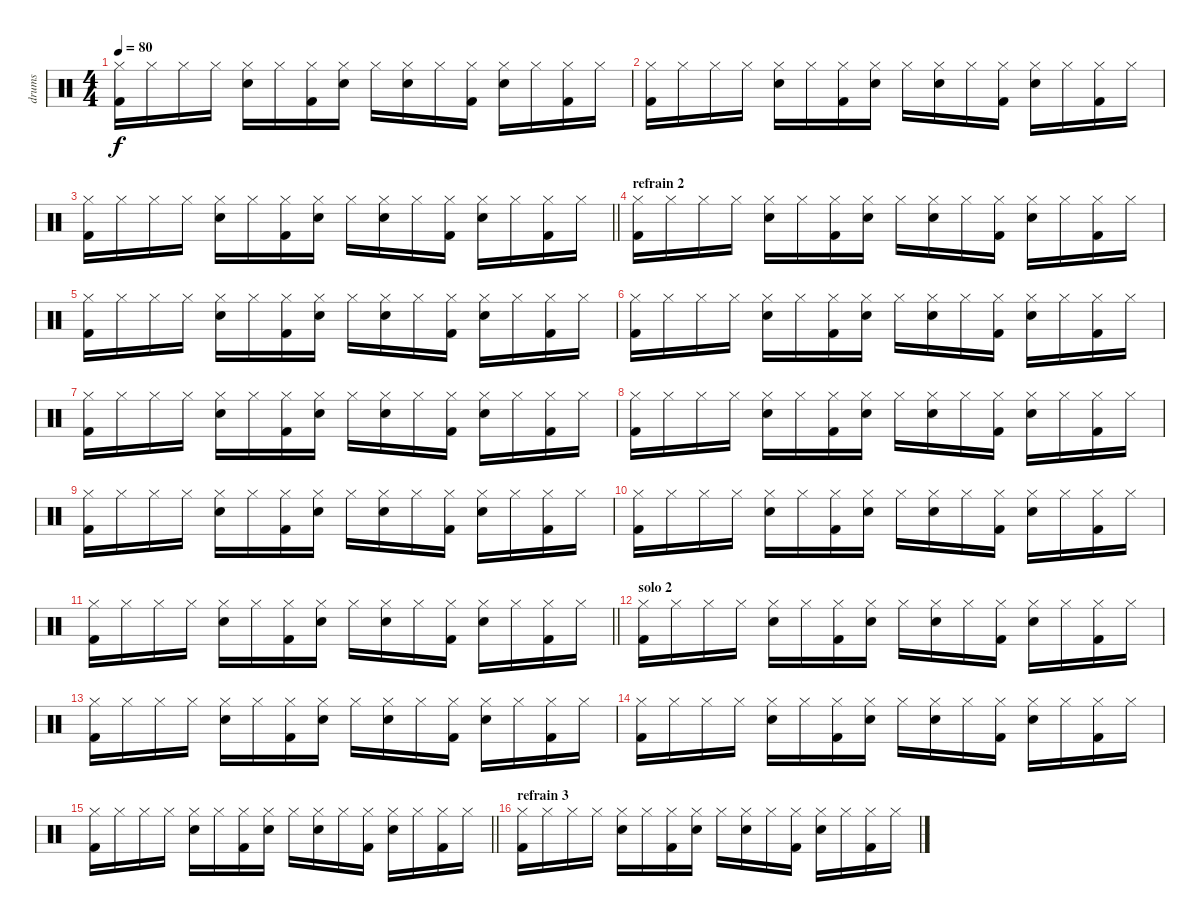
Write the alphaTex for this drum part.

\track ("drums" "drums") {instrument percussion}
\staff {score}
\articulation defaults
\ts (4 4)
\tempo 80
\clef neutral
\ks c
("Hi-Hat (closed)" "Kick (hit) 2").16{dy f} "Hi-Hat (closed)".16 "Hi-Hat (closed)".16 "Hi-Hat (closed)".16 ("Hi-Hat (closed)" "Snare (hit) 2").16 "Hi-Hat (closed)".16 ("Hi-Hat (closed)" "Kick (hit) 2").16 ("Hi-Hat (closed)" "Snare (hit) 2").16 "Hi-Hat (closed)".16 ("Hi-Hat (closed)" "Snare (hit) 2").16 "Hi-Hat (closed)".16 ("Hi-Hat (closed)" "Kick (hit) 2").16 ("Hi-Hat (closed)" "Snare (hit) 2").16 "Hi-Hat (closed)".16 ("Hi-Hat (closed)" "Kick (hit) 2").16 "Hi-Hat (closed)".16 |
("Hi-Hat (closed)" "Kick (hit) 2").16 "Hi-Hat (closed)".16 "Hi-Hat (closed)".16 "Hi-Hat (closed)".16 ("Hi-Hat (closed)" "Snare (hit) 2").16 "Hi-Hat (closed)".16 ("Hi-Hat (closed)" "Kick (hit) 2").16 ("Hi-Hat (closed)" "Snare (hit) 2").16 "Hi-Hat (closed)".16 ("Hi-Hat (closed)" "Snare (hit) 2").16 "Hi-Hat (closed)".16 ("Hi-Hat (closed)" "Kick (hit) 2").16 ("Hi-Hat (closed)" "Snare (hit) 2").16 "Hi-Hat (closed)".16 ("Hi-Hat (closed)" "Kick (hit) 2").16 "Hi-Hat (closed)".16 |
\barLineRight lightlight
("Hi-Hat (closed)" "Kick (hit) 2").16 "Hi-Hat (closed)".16 "Hi-Hat (closed)".16 "Hi-Hat (closed)".16 ("Hi-Hat (closed)" "Snare (hit) 2").16 "Hi-Hat (closed)".16 ("Hi-Hat (closed)" "Kick (hit) 2").16 ("Hi-Hat (closed)" "Snare (hit) 2").16 "Hi-Hat (closed)".16 ("Hi-Hat (closed)" "Snare (hit) 2").16 "Hi-Hat (closed)".16 ("Hi-Hat (closed)" "Kick (hit) 2").16 ("Hi-Hat (closed)" "Snare (hit) 2").16 "Hi-Hat (closed)".16 ("Hi-Hat (closed)" "Kick (hit) 2").16 "Hi-Hat (closed)".16 |
\section ("" "refrain 2")
("Hi-Hat (closed)" "Kick (hit) 2").16 "Hi-Hat (closed)".16 "Hi-Hat (closed)".16 "Hi-Hat (closed)".16 ("Hi-Hat (closed)" "Snare (hit) 2").16 "Hi-Hat (closed)".16 ("Hi-Hat (closed)" "Kick (hit) 2").16 ("Hi-Hat (closed)" "Snare (hit) 2").16 "Hi-Hat (closed)".16 ("Hi-Hat (closed)" "Snare (hit) 2").16 "Hi-Hat (closed)".16 ("Hi-Hat (closed)" "Kick (hit) 2").16 ("Hi-Hat (closed)" "Snare (hit) 2").16 "Hi-Hat (closed)".16 ("Hi-Hat (closed)" "Kick (hit) 2").16 "Hi-Hat (closed)".16 |
("Hi-Hat (closed)" "Kick (hit) 2").16 "Hi-Hat (closed)".16 "Hi-Hat (closed)".16 "Hi-Hat (closed)".16 ("Hi-Hat (closed)" "Snare (hit) 2").16 "Hi-Hat (closed)".16 ("Hi-Hat (closed)" "Kick (hit) 2").16 ("Hi-Hat (closed)" "Snare (hit) 2").16 "Hi-Hat (closed)".16 ("Hi-Hat (closed)" "Snare (hit) 2").16 "Hi-Hat (closed)".16 ("Hi-Hat (closed)" "Kick (hit) 2").16 ("Hi-Hat (closed)" "Snare (hit) 2").16 "Hi-Hat (closed)".16 ("Hi-Hat (closed)" "Kick (hit) 2").16 "Hi-Hat (closed)".16 |
("Hi-Hat (closed)" "Kick (hit) 2").16 "Hi-Hat (closed)".16 "Hi-Hat (closed)".16 "Hi-Hat (closed)".16 ("Hi-Hat (closed)" "Snare (hit) 2").16 "Hi-Hat (closed)".16 ("Hi-Hat (closed)" "Kick (hit) 2").16 ("Hi-Hat (closed)" "Snare (hit) 2").16 "Hi-Hat (closed)".16 ("Hi-Hat (closed)" "Snare (hit) 2").16 "Hi-Hat (closed)".16 ("Hi-Hat (closed)" "Kick (hit) 2").16 ("Hi-Hat (closed)" "Snare (hit) 2").16 "Hi-Hat (closed)".16 ("Hi-Hat (closed)" "Kick (hit) 2").16 "Hi-Hat (closed)".16 |
("Hi-Hat (closed)" "Kick (hit) 2").16 "Hi-Hat (closed)".16 "Hi-Hat (closed)".16 "Hi-Hat (closed)".16 ("Hi-Hat (closed)" "Snare (hit) 2").16 "Hi-Hat (closed)".16 ("Hi-Hat (closed)" "Kick (hit) 2").16 ("Hi-Hat (closed)" "Snare (hit) 2").16 "Hi-Hat (closed)".16 ("Hi-Hat (closed)" "Snare (hit) 2").16 "Hi-Hat (closed)".16 ("Hi-Hat (closed)" "Kick (hit) 2").16 ("Hi-Hat (closed)" "Snare (hit) 2").16 "Hi-Hat (closed)".16 ("Hi-Hat (closed)" "Kick (hit) 2").16 "Hi-Hat (closed)".16 |
("Hi-Hat (closed)" "Kick (hit) 2").16 "Hi-Hat (closed)".16 "Hi-Hat (closed)".16 "Hi-Hat (closed)".16 ("Hi-Hat (closed)" "Snare (hit) 2").16 "Hi-Hat (closed)".16 ("Hi-Hat (closed)" "Kick (hit) 2").16 ("Hi-Hat (closed)" "Snare (hit) 2").16 "Hi-Hat (closed)".16 ("Hi-Hat (closed)" "Snare (hit) 2").16 "Hi-Hat (closed)".16 ("Hi-Hat (closed)" "Kick (hit) 2").16 ("Hi-Hat (closed)" "Snare (hit) 2").16 "Hi-Hat (closed)".16 ("Hi-Hat (closed)" "Kick (hit) 2").16 "Hi-Hat (closed)".16 |
("Hi-Hat (closed)" "Kick (hit) 2").16 "Hi-Hat (closed)".16 "Hi-Hat (closed)".16 "Hi-Hat (closed)".16 ("Hi-Hat (closed)" "Snare (hit) 2").16 "Hi-Hat (closed)".16 ("Hi-Hat (closed)" "Kick (hit) 2").16 ("Hi-Hat (closed)" "Snare (hit) 2").16 "Hi-Hat (closed)".16 ("Hi-Hat (closed)" "Snare (hit) 2").16 "Hi-Hat (closed)".16 ("Hi-Hat (closed)" "Kick (hit) 2").16 ("Hi-Hat (closed)" "Snare (hit) 2").16 "Hi-Hat (closed)".16 ("Hi-Hat (closed)" "Kick (hit) 2").16 "Hi-Hat (closed)".16 |
("Hi-Hat (closed)" "Kick (hit) 2").16 "Hi-Hat (closed)".16 "Hi-Hat (closed)".16 "Hi-Hat (closed)".16 ("Hi-Hat (closed)" "Snare (hit) 2").16 "Hi-Hat (closed)".16 ("Hi-Hat (closed)" "Kick (hit) 2").16 ("Hi-Hat (closed)" "Snare (hit) 2").16 "Hi-Hat (closed)".16 ("Hi-Hat (closed)" "Snare (hit) 2").16 "Hi-Hat (closed)".16 ("Hi-Hat (closed)" "Kick (hit) 2").16 ("Hi-Hat (closed)" "Snare (hit) 2").16 "Hi-Hat (closed)".16 ("Hi-Hat (closed)" "Kick (hit) 2").16 "Hi-Hat (closed)".16 |
\barLineRight lightlight
("Hi-Hat (closed)" "Kick (hit) 2").16 "Hi-Hat (closed)".16 "Hi-Hat (closed)".16 "Hi-Hat (closed)".16 ("Hi-Hat (closed)" "Snare (hit) 2").16 "Hi-Hat (closed)".16 ("Hi-Hat (closed)" "Kick (hit) 2").16 ("Hi-Hat (closed)" "Snare (hit) 2").16 "Hi-Hat (closed)".16 ("Hi-Hat (closed)" "Snare (hit) 2").16 "Hi-Hat (closed)".16 ("Hi-Hat (closed)" "Kick (hit) 2").16 ("Hi-Hat (closed)" "Snare (hit) 2").16 "Hi-Hat (closed)".16 ("Hi-Hat (closed)" "Kick (hit) 2").16 "Hi-Hat (closed)".16 |
\section ("" "solo 2")
("Hi-Hat (closed)" "Kick (hit) 2").16 "Hi-Hat (closed)".16 "Hi-Hat (closed)".16 "Hi-Hat (closed)".16 ("Hi-Hat (closed)" "Snare (hit) 2").16 "Hi-Hat (closed)".16 ("Hi-Hat (closed)" "Kick (hit) 2").16 ("Hi-Hat (closed)" "Snare (hit) 2").16 "Hi-Hat (closed)".16 ("Hi-Hat (closed)" "Snare (hit) 2").16 "Hi-Hat (closed)".16 ("Hi-Hat (closed)" "Kick (hit) 2").16 ("Hi-Hat (closed)" "Snare (hit) 2").16 "Hi-Hat (closed)".16 ("Hi-Hat (closed)" "Kick (hit) 2").16 "Hi-Hat (closed)".16 |
("Hi-Hat (closed)" "Kick (hit) 2").16 "Hi-Hat (closed)".16 "Hi-Hat (closed)".16 "Hi-Hat (closed)".16 ("Hi-Hat (closed)" "Snare (hit) 2").16 "Hi-Hat (closed)".16 ("Hi-Hat (closed)" "Kick (hit) 2").16 ("Hi-Hat (closed)" "Snare (hit) 2").16 "Hi-Hat (closed)".16 ("Hi-Hat (closed)" "Snare (hit) 2").16 "Hi-Hat (closed)".16 ("Hi-Hat (closed)" "Kick (hit) 2").16 ("Hi-Hat (closed)" "Snare (hit) 2").16 "Hi-Hat (closed)".16 ("Hi-Hat (closed)" "Kick (hit) 2").16 "Hi-Hat (closed)".16 |
("Hi-Hat (closed)" "Kick (hit) 2").16 "Hi-Hat (closed)".16 "Hi-Hat (closed)".16 "Hi-Hat (closed)".16 ("Hi-Hat (closed)" "Snare (hit) 2").16 "Hi-Hat (closed)".16 ("Hi-Hat (closed)" "Kick (hit) 2").16 ("Hi-Hat (closed)" "Snare (hit) 2").16 "Hi-Hat (closed)".16 ("Hi-Hat (closed)" "Snare (hit) 2").16 "Hi-Hat (closed)".16 ("Hi-Hat (closed)" "Kick (hit) 2").16 ("Hi-Hat (closed)" "Snare (hit) 2").16 "Hi-Hat (closed)".16 ("Hi-Hat (closed)" "Kick (hit) 2").16 "Hi-Hat (closed)".16 |
\barLineRight lightlight
("Hi-Hat (closed)" "Kick (hit) 2").16 "Hi-Hat (closed)".16 "Hi-Hat (closed)".16 "Hi-Hat (closed)".16 ("Hi-Hat (closed)" "Snare (hit) 2").16 "Hi-Hat (closed)".16 ("Hi-Hat (closed)" "Kick (hit) 2").16 ("Hi-Hat (closed)" "Snare (hit) 2").16 "Hi-Hat (closed)".16 ("Hi-Hat (closed)" "Snare (hit) 2").16 "Hi-Hat (closed)".16 ("Hi-Hat (closed)" "Kick (hit) 2").16 ("Hi-Hat (closed)" "Snare (hit) 2").16 "Hi-Hat (closed)".16 ("Hi-Hat (closed)" "Kick (hit) 2").16 "Hi-Hat (closed)".16 |
\section ("" "refrain 3")
("Hi-Hat (closed)" "Kick (hit) 2").16 "Hi-Hat (closed)".16 "Hi-Hat (closed)".16 "Hi-Hat (closed)".16 ("Hi-Hat (closed)" "Snare (hit) 2").16 "Hi-Hat (closed)".16 ("Hi-Hat (closed)" "Kick (hit) 2").16 ("Hi-Hat (closed)" "Snare (hit) 2").16 "Hi-Hat (closed)".16 ("Hi-Hat (closed)" "Snare (hit) 2").16 "Hi-Hat (closed)".16 ("Hi-Hat (closed)" "Kick (hit) 2").16 ("Hi-Hat (closed)" "Snare (hit) 2").16 "Hi-Hat (closed)".16 ("Hi-Hat (closed)" "Kick (hit) 2").16 "Hi-Hat (closed)".16
